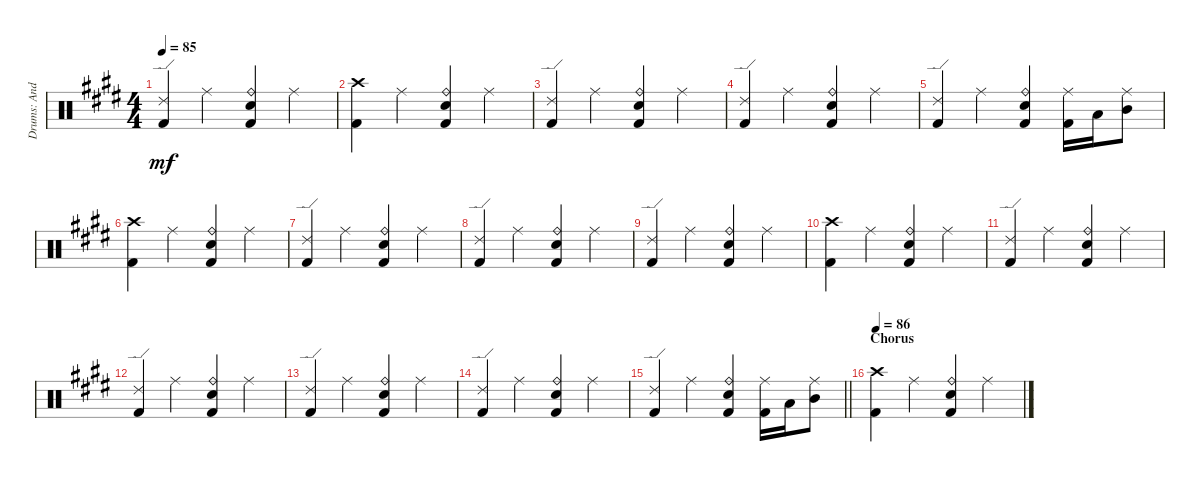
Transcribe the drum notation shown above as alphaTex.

\track ("Drums: Andy" "Drums: And") {instrument percussion}
\staff {score}
\articulation defaults
\ts (4 4)
\tempo 85
\clef neutral
\ks e
("Ride (edge) 2" "Kick (hit) 2").4{dy mf} "Ride (middle)".4 ("Ride (bell)" "Electric Snare (hit)" "Kick (hit) 2").4 "Ride (middle)".4 |
("Crash high (hit)" "Kick (hit) 2").4 "Ride (middle)".4 ("Ride (bell)" "Electric Snare (hit)" "Kick (hit) 2").4 "Ride (middle)".4 |
("Ride (edge) 2" "Kick (hit) 2").4 "Ride (middle)".4 ("Ride (bell)" "Electric Snare (hit)" "Kick (hit) 2").4 "Ride (middle)".4 |
("Ride (edge) 2" "Kick (hit) 2").4 "Ride (middle)".4 ("Ride (bell)" "Electric Snare (hit)" "Kick (hit) 2").4 "Ride (middle)".4 |
("Ride (edge) 2" "Kick (hit) 2").4 "Ride (middle)".4 ("Ride (bell)" "Electric Snare (hit)" "Kick (hit) 2").4 ("Ride (middle)" "Kick (hit) 2").16 "Low Tom (hit)".16 ("Ride (middle)" "Mid Tom (hit)").8 |
("Crash high (hit)" "Kick (hit) 2").4 "Ride (middle)".4 ("Ride (bell)" "Electric Snare (hit)" "Kick (hit) 2").4 "Ride (middle)".4 |
("Ride (edge) 2" "Kick (hit) 2").4 "Ride (middle)".4 ("Ride (bell)" "Electric Snare (hit)" "Kick (hit) 2").4 "Ride (middle)".4 |
("Ride (edge) 2" "Kick (hit) 2").4 "Ride (middle)".4 ("Ride (bell)" "Electric Snare (hit)" "Kick (hit) 2").4 "Ride (middle)".4 |
("Ride (edge) 2" "Kick (hit) 2").4 "Ride (middle)".4 ("Ride (bell)" "Electric Snare (hit)" "Kick (hit) 2").4 "Ride (middle)".4 |
("Crash high (hit)" "Kick (hit) 2").4 "Ride (middle)".4 ("Ride (bell)" "Electric Snare (hit)" "Kick (hit) 2").4 "Ride (middle)".4 |
("Ride (edge) 2" "Kick (hit) 2").4 "Ride (middle)".4 ("Ride (bell)" "Electric Snare (hit)" "Kick (hit) 2").4 "Ride (middle)".4 |
("Ride (edge) 2" "Kick (hit) 2").4 "Ride (middle)".4 ("Ride (bell)" "Electric Snare (hit)" "Kick (hit) 2").4 "Ride (middle)".4 |
("Ride (edge) 2" "Kick (hit) 2").4 "Ride (middle)".4 ("Ride (bell)" "Electric Snare (hit)" "Kick (hit) 2").4 "Ride (middle)".4 |
("Ride (edge) 2" "Kick (hit) 2").4 "Ride (middle)".4 ("Ride (bell)" "Electric Snare (hit)" "Kick (hit) 2").4 "Ride (middle)".4 |
\barLineRight lightlight
("Ride (edge) 2" "Kick (hit) 2").4 "Ride (middle)".4 ("Ride (bell)" "Electric Snare (hit)" "Kick (hit) 2").4 ("Ride (middle)" "Kick (hit) 2").16 "Low Tom (hit)".16 ("Ride (middle)" "Mid Tom (hit)").8 |
\section ("" "Chorus")
\tempo 86
("Crash high (hit)" "Kick (hit) 2").4 "Ride (middle)".4 ("Ride (bell)" "Electric Snare (hit)" "Kick (hit) 2").4 "Ride (middle)".4
